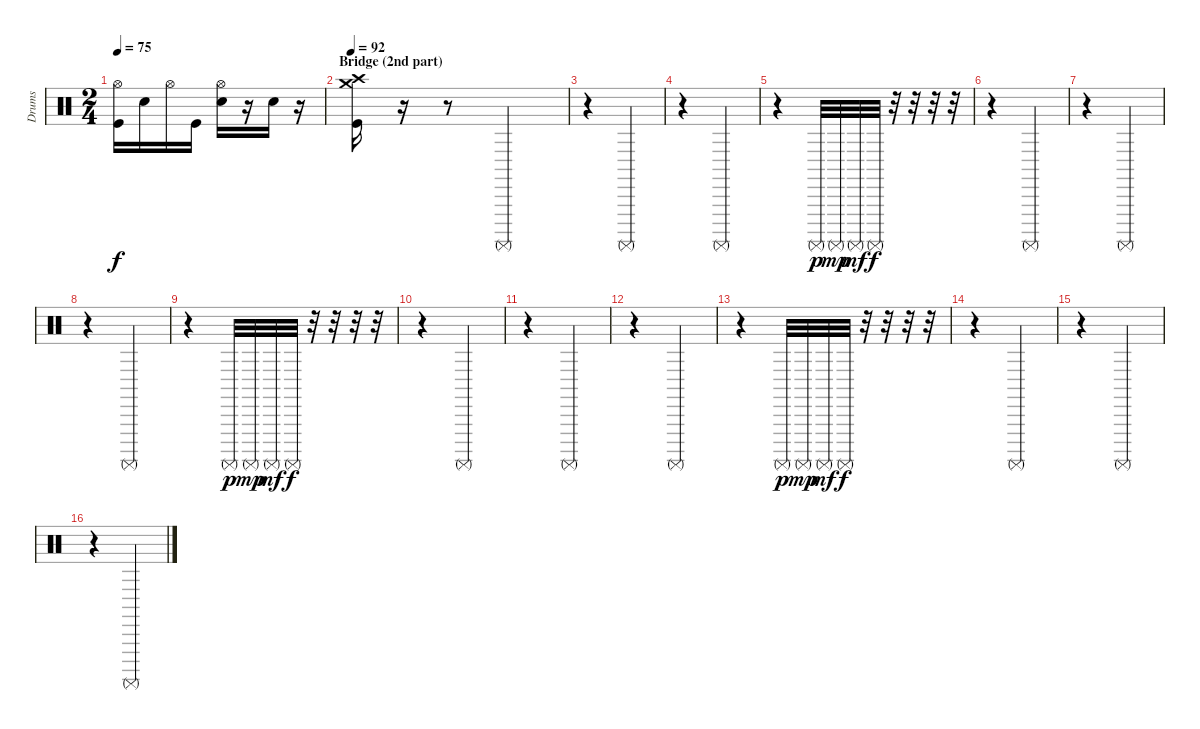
\track ("Drums" "Drums") {instrument percussion}
\staff {score}
\articulation defaults
\ts (2 4)
\tempo 75
\clef neutral
\ks c
("Hi-Hat (open)" "Kick (hit)").16{dy f} "Electric Snare (hit)".16 "Hi-Hat (open)".16 "Kick (hit)".16 ("Hi-Hat (open)" "Electric Snare (hit)").16 r.16 "Electric Snare (hit)".16 r.16 |
\section ("" "Bridge (2nd part)")
\tempo 92
("Crash high (hit)" "Crash medium (hit)" "Kick (hit)").16 r.16 r.8 "Surdo (mute)".4 |
r.4 "Surdo (mute)".4 |
r.4 "Surdo (mute)".4 |
r.4 "Surdo (mute)".32{dy p} "Surdo (mute)".32{dy mp} "Surdo (mute)".32{dy mf} "Surdo (mute)".32{dy f} r.32 r.32 r.32 r.32 |
r.4 "Surdo (mute)".4 |
r.4 "Surdo (mute)".4 |
r.4 "Surdo (mute)".4 |
r.4 "Surdo (mute)".32{dy p} "Surdo (mute)".32{dy mp} "Surdo (mute)".32{dy mf} "Surdo (mute)".32{dy f} r.32 r.32 r.32 r.32 |
r.4 "Surdo (mute)".4 |
r.4 "Surdo (mute)".4 |
r.4 "Surdo (mute)".4 |
r.4 "Surdo (mute)".32{dy p} "Surdo (mute)".32{dy mp} "Surdo (mute)".32{dy mf} "Surdo (mute)".32{dy f} r.32 r.32 r.32 r.32 |
r.4 "Surdo (mute)".4 |
r.4 "Surdo (mute)".4 |
r.4 "Surdo (mute)".4
